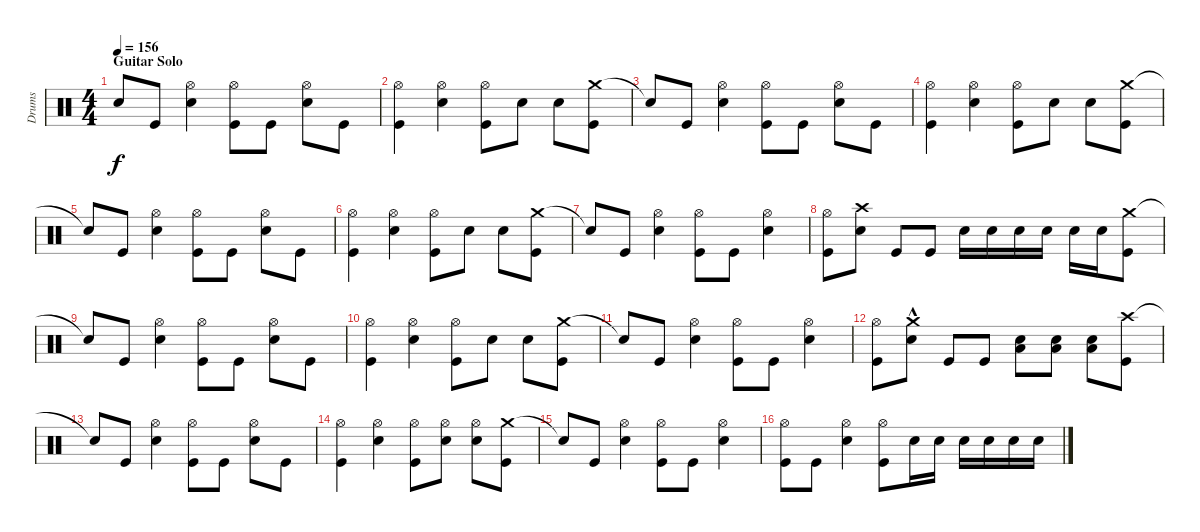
\track ("Drums" "Drums") {instrument percussion}
\staff {score}
\articulation defaults
\ts (4 4)
\section ("" "Guitar Solo")
\tempo 156
\clef neutral
\ks c "Snare (hit)"{t}.8{dy f} "Kick (hit)".8
("Hi-Hat (open)" "Electric Snare (hit)").4 ("Hi-Hat (open)" "Kick (hit)").8 "Kick (hit)".8 ("Hi-Hat (open)" "Electric Snare (hit)").8 "Kick (hit)".8 |
("Kick (hit)" "Hi-Hat (open)").4 ("Electric Snare (hit)" "Hi-Hat (open)").4 ("Kick (hit)" "Hi-Hat (open)").8 "Electric Snare (hit)".8 "Electric Snare (hit)".8 ("Crash medium (hit)" "Kick (hit)").8 |
"Snare (hit)"{t}.8 "Kick (hit)".8 ("Electric Snare (hit)" "Hi-Hat (open)").4 ("Kick (hit)" "Hi-Hat (open)").8 "Kick (hit)".8 ("Electric Snare (hit)" "Hi-Hat (open)").8 "Kick (hit)".8 |
("Kick (hit)" "Hi-Hat (open)").4 ("Electric Snare (hit)" "Hi-Hat (open)").4 ("Kick (hit)" "Hi-Hat (open)").8 "Electric Snare (hit)".8 "Electric Snare (hit)".8 ("Crash medium (hit)" "Kick (hit)").8 |
"Snare (hit)"{t}.8 "Kick (hit)".8 ("Electric Snare (hit)" "Hi-Hat (open)").4 ("Kick (hit)" "Hi-Hat (open)").8 "Kick (hit)".8 ("Electric Snare (hit)" "Hi-Hat (open)").8 "Kick (hit)".8 |
("Kick (hit)" "Hi-Hat (open)").4 ("Electric Snare (hit)" "Hi-Hat (open)").4 ("Kick (hit)" "Hi-Hat (open)").8 "Electric Snare (hit)".8 "Electric Snare (hit)".8 ("Crash medium (hit)" "Kick (hit)").8 |
"Snare (hit)"{t}.8 "Kick (hit)".8 ("Electric Snare (hit)" "Hi-Hat (open)").4 ("Kick (hit)" "Hi-Hat (open)").8 "Kick (hit)".8 ("Electric Snare (hit)" "Hi-Hat (open)").4 |
("Kick (hit)" "Hi-Hat (open)").8 ("Crash high (hit)" "Electric Snare (hit)").8 "Kick (hit)".8 "Kick (hit)".8 "Electric Snare (hit)".16 "Electric Snare (hit)".16 "Electric Snare (hit)".16 "Electric Snare (hit)".16 "Electric Snare (hit)".16 "Electric Snare (hit)".16 ("Crash medium (hit)" "Kick (hit)").8 |
"Snare (hit)"{t}.8 "Kick (hit)".8 ("Electric Snare (hit)" "Hi-Hat (open)").4 ("Kick (hit)" "Hi-Hat (open)").8 "Kick (hit)".8 ("Electric Snare (hit)" "Hi-Hat (open)").8 "Kick (hit)".8 |
("Kick (hit)" "Hi-Hat (open)").4 ("Electric Snare (hit)" "Hi-Hat (open)").4 ("Kick (hit)" "Hi-Hat (open)").8 "Electric Snare (hit)".8 "Electric Snare (hit)".8 ("Crash medium (hit)" "Kick (hit)").8 |
"Snare (hit)"{t}.8 "Kick (hit)".8 ("Electric Snare (hit)" "Hi-Hat (open)").4 ("Kick (hit)" "Hi-Hat (open)").8 "Kick (hit)".8 ("Electric Snare (hit)" "Hi-Hat (open)").4 |
("Hi-Hat (open)" "Kick (hit)").8 ("Electric Snare (hit)" "Crash medium (hit)"{hac}).8 "Kick (hit)".8 "Kick (hit)".8 ("Electric Snare (hit)" "Low Tom (hit)").8 ("Low Tom (hit)" "Electric Snare (hit)").8 ("Electric Snare (hit)" "Low Tom (hit)").8 ("Crash high (hit)" "Kick (hit)").8 |
"Snare (hit)"{t}.8 "Kick (hit)".8 ("Hi-Hat (open)" "Electric Snare (hit)").4 ("Hi-Hat (open)" "Kick (hit)").8 "Kick (hit)".8 ("Hi-Hat (open)" "Electric Snare (hit)").8 "Kick (hit)".8 |
("Kick (hit)" "Hi-Hat (open)").4 ("Electric Snare (hit)" "Hi-Hat (open)").4 ("Hi-Hat (open)" "Kick (hit)").8 ("Hi-Hat (open)" "Electric Snare (hit)").8 ("Hi-Hat (open)" "Electric Snare (hit)").8 ("Crash medium (hit)" "Kick (hit)").8 |
"Snare (hit)"{t}.8 "Kick (hit)".8 ("Electric Snare (hit)" "Hi-Hat (open)").4 ("Kick (hit)" "Hi-Hat (open)").8 "Kick (hit)".8 ("Electric Snare (hit)" "Hi-Hat (open)").4 |
("Kick (hit)" "Hi-Hat (open)").8 "Kick (hit)".8 ("Electric Snare (hit)" "Hi-Hat (open)").4 ("Kick (hit)" "Hi-Hat (open)").8 "Electric Snare (hit)".16 "Electric Snare (hit)".16 "Electric Snare (hit)".16 "Electric Snare (hit)".16 "Electric Snare (hit)".16 "Electric Snare (hit)".16
